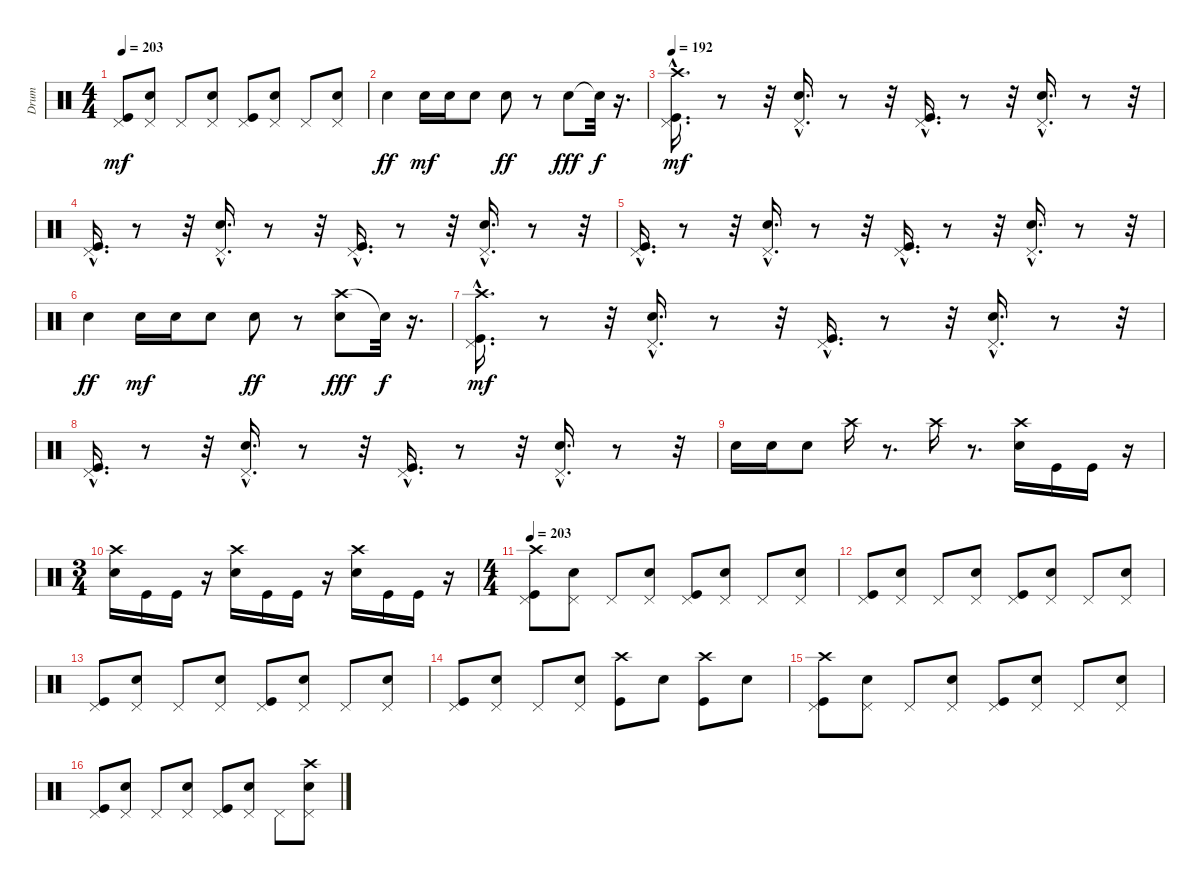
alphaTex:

\track ("Drum" "Drum") {instrument percussion}
\staff {score}
\articulation defaults
\ts (4 4)
\tempo 203
\clef neutral
\ks c
("Pedal Hi-Hat (hit)" "Kick (hit)").8{dy mf} ("Pedal Hi-Hat (hit)" "Snare (hit) 2").8 "Pedal Hi-Hat (hit)".8 ("Pedal Hi-Hat (hit)" "Snare (hit) 2").8 ("Pedal Hi-Hat (hit)" "Kick (hit)").8 ("Pedal Hi-Hat (hit)" "Snare (hit) 2").8 "Pedal Hi-Hat (hit)".8 ("Pedal Hi-Hat (hit)" "Snare (hit) 2").8 |
"Snare (hit) 2".4{dy ff} "Snare (hit) 2".16{dy mf} "Snare (hit) 2".16 "Snare (hit) 2".8 "Snare (hit) 2".8{dy ff} r.8 "Snare (hit) 2".8{dy fff} "Snare (hit)"{t}.32{dy f} r.16{d} |
\tempo 192
("Crash high (hit)" "Pedal Hi-Hat (hit)" "Kick (hit)"{hac}).16{d dy mf} r.8 r.32 ("Pedal Hi-Hat (hit)" "Snare (hit) 2"{hac}).16{d} r.8 r.32 ("Pedal Hi-Hat (hit)" "Kick (hit)"{hac}).16{d} r.8 r.32 ("Pedal Hi-Hat (hit)" "Snare (hit) 2"{hac}).16{d} r.8 r.32 |
("Pedal Hi-Hat (hit)" "Kick (hit)"{hac}).16{d} r.8 r.32 ("Pedal Hi-Hat (hit)" "Snare (hit) 2"{hac}).16{d} r.8 r.32 ("Pedal Hi-Hat (hit)" "Kick (hit)"{hac}).16{d} r.8 r.32 ("Pedal Hi-Hat (hit)" "Snare (hit) 2"{hac}).16{d} r.8 r.32 |
("Pedal Hi-Hat (hit)" "Kick (hit)"{hac}).16{d} r.8 r.32 ("Pedal Hi-Hat (hit)" "Snare (hit) 2"{hac}).16{d} r.8 r.32 ("Pedal Hi-Hat (hit)" "Kick (hit)"{hac}).16{d} r.8 r.32 ("Pedal Hi-Hat (hit)" "Snare (hit) 2"{hac}).16{d} r.8 r.32 |
"Snare (hit) 2".4{dy ff} "Snare (hit) 2".16{dy mf} "Snare (hit) 2".16 "Snare (hit) 2".8 "Snare (hit) 2".8{dy ff} r.8 ("Crash high (hit)" "Snare (hit) 2").8{dy fff} "Snare (hit)"{t}.32{dy f} r.16{d} |
("Crash high (hit)" "Pedal Hi-Hat (hit)" "Kick (hit)"{hac}).16{d dy mf} r.8 r.32 ("Pedal Hi-Hat (hit)" "Snare (hit) 2"{hac}).16{d} r.8 r.32 ("Pedal Hi-Hat (hit)" "Kick (hit)"{hac}).16{d} r.8 r.32 ("Pedal Hi-Hat (hit)" "Snare (hit) 2"{hac}).16{d} r.8 r.32 |
("Pedal Hi-Hat (hit)" "Kick (hit)"{hac}).16{d} r.8 r.32 ("Pedal Hi-Hat (hit)" "Snare (hit) 2"{hac}).16{d} r.8 r.32 ("Pedal Hi-Hat (hit)" "Kick (hit)"{hac}).16{d} r.8 r.32 ("Pedal Hi-Hat (hit)" "Snare (hit) 2"{hac}).16{d} r.8 r.32 |
"Snare (hit) 2".16 "Snare (hit) 2".16 "Snare (hit) 2".8 "Crash high (hit)".16 r.8{d} "Crash high (hit)".16 r.8{d} ("Crash high (hit)" "Snare (hit) 2").16 "Kick (hit)".16 "Kick (hit)".16 r.16 |
\ts (3 4)
("Crash high (hit)" "Snare (hit) 2").16 "Kick (hit)".16 "Kick (hit)".16 r.16 ("Crash high (hit)" "Snare (hit) 2").16 "Kick (hit)".16 "Kick (hit)".16 r.16 ("Crash high (hit)" "Snare (hit) 2").16 "Kick (hit)".16 "Kick (hit)".16 r.16 |
\ts (4 4)
\tempo 203
("Pedal Hi-Hat (hit)" "Kick (hit)" "Crash high (hit)").8 ("Pedal Hi-Hat (hit)" "Snare (hit) 2").8 "Pedal Hi-Hat (hit)".8 ("Pedal Hi-Hat (hit)" "Snare (hit) 2").8 ("Pedal Hi-Hat (hit)" "Kick (hit)").8 ("Pedal Hi-Hat (hit)" "Snare (hit) 2").8 "Pedal Hi-Hat (hit)".8 ("Pedal Hi-Hat (hit)" "Snare (hit) 2").8 |
("Pedal Hi-Hat (hit)" "Kick (hit)").8 ("Pedal Hi-Hat (hit)" "Snare (hit) 2").8 "Pedal Hi-Hat (hit)".8 ("Pedal Hi-Hat (hit)" "Snare (hit) 2").8 ("Pedal Hi-Hat (hit)" "Kick (hit)").8 ("Pedal Hi-Hat (hit)" "Snare (hit) 2").8 "Pedal Hi-Hat (hit)".8 ("Pedal Hi-Hat (hit)" "Snare (hit) 2").8 |
("Pedal Hi-Hat (hit)" "Kick (hit)").8 ("Pedal Hi-Hat (hit)" "Snare (hit) 2").8 "Pedal Hi-Hat (hit)".8 ("Pedal Hi-Hat (hit)" "Snare (hit) 2").8 ("Pedal Hi-Hat (hit)" "Kick (hit)").8 ("Pedal Hi-Hat (hit)" "Snare (hit) 2").8 "Pedal Hi-Hat (hit)".8 ("Pedal Hi-Hat (hit)" "Snare (hit) 2").8 |
("Pedal Hi-Hat (hit)" "Kick (hit)").8 ("Pedal Hi-Hat (hit)" "Snare (hit) 2").8 "Pedal Hi-Hat (hit)".8 ("Pedal Hi-Hat (hit)" "Snare (hit) 2").8 ("Crash high (hit)" "Kick (hit)").8 "Snare (hit) 2".8 ("Crash high (hit)" "Kick (hit)").8 "Snare (hit) 2".8 |
("Crash high (hit)" "Pedal Hi-Hat (hit)" "Kick (hit)").8 ("Pedal Hi-Hat (hit)" "Snare (hit) 2").8 "Pedal Hi-Hat (hit)".8 ("Pedal Hi-Hat (hit)" "Snare (hit) 2").8 ("Pedal Hi-Hat (hit)" "Kick (hit)").8 ("Pedal Hi-Hat (hit)" "Snare (hit) 2").8 "Pedal Hi-Hat (hit)".8 ("Pedal Hi-Hat (hit)" "Snare (hit) 2").8 |
("Pedal Hi-Hat (hit)" "Kick (hit)").8 ("Pedal Hi-Hat (hit)" "Snare (hit) 2").8 "Pedal Hi-Hat (hit)".8 ("Pedal Hi-Hat (hit)" "Snare (hit) 2").8 ("Pedal Hi-Hat (hit)" "Kick (hit)").8 ("Pedal Hi-Hat (hit)" "Snare (hit) 2").8 "Pedal Hi-Hat (hit)".8 ("Crash high (hit)" "Pedal Hi-Hat (hit)" "Snare (hit) 2").8
